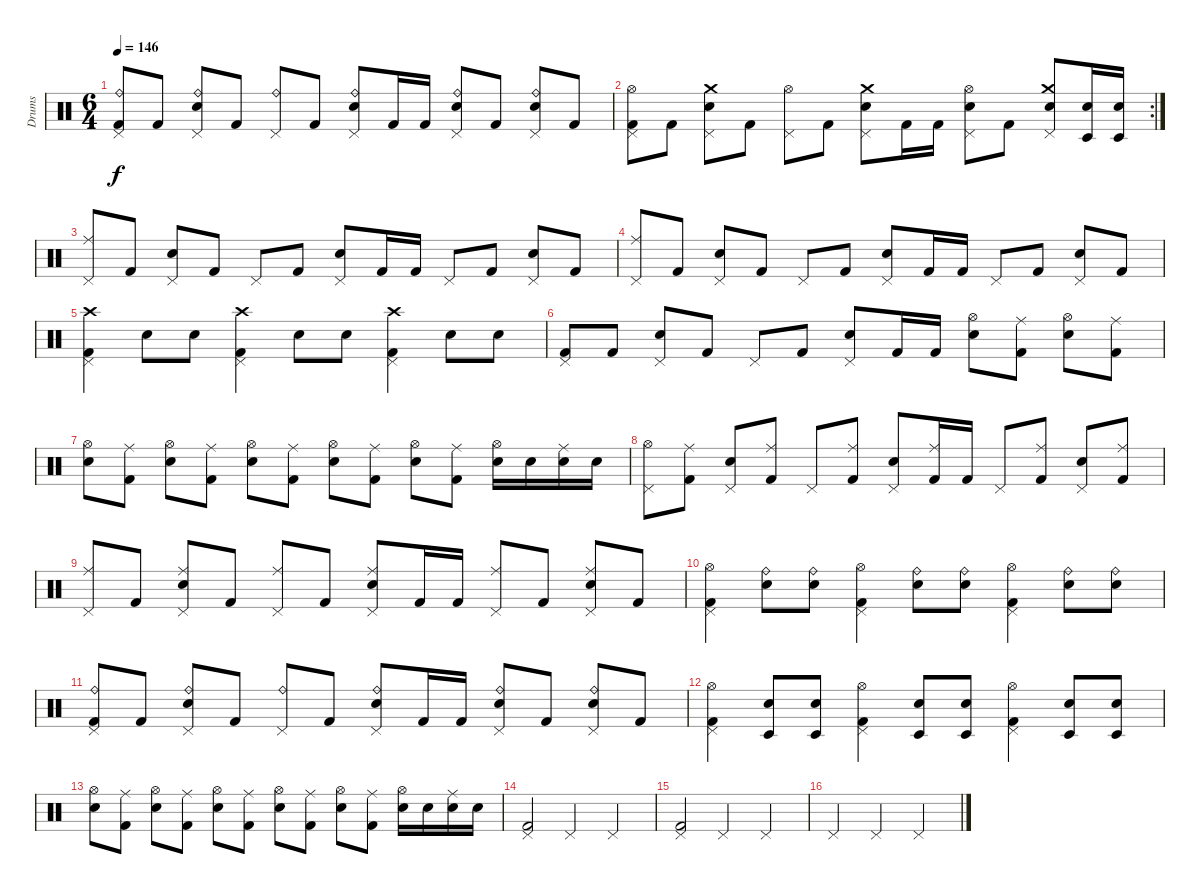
\track ("Drums" "Drums") {instrument percussion}
\staff {score}
\articulation defaults
\ts (6 4)
\tempo 146
\clef neutral
\ks c
("Pedal Hi-Hat (hit)" "Ride (bell)" "Kick (hit) 2").8{dy f} "Kick (hit) 2".8 ("Pedal Hi-Hat (hit)" "Electric Snare (hit)" "Ride (bell)").8 "Kick (hit) 2".8 ("Pedal Hi-Hat (hit)" "Ride (bell)").8 "Kick (hit) 2".8 ("Pedal Hi-Hat (hit)" "Electric Snare (hit)" "Ride (bell)").8 "Kick (hit) 2".16 "Kick (hit) 2".16 ("Pedal Hi-Hat (hit)" "Electric Snare (hit)" "Ride (bell)").8 "Kick (hit) 2".8 ("Pedal Hi-Hat (hit)" "Electric Snare (hit)" "Ride (bell)").8 "Kick (hit) 2".8 |
\rc 2
("Pedal Hi-Hat (hit)" "Hi-Hat (open)" "Kick (hit) 2").8 "Kick (hit) 2".8 ("Pedal Hi-Hat (hit)" "Electric Snare (hit)" "Crash medium (hit)").8 "Kick (hit) 2".8 ("Pedal Hi-Hat (hit)" "Hi-Hat (open)").8 "Kick (hit) 2".8 ("Pedal Hi-Hat (hit)" "Electric Snare (hit)" "Crash medium (hit)").8 "Kick (hit) 2".16 "Kick (hit) 2".16 ("Pedal Hi-Hat (hit)" "Electric Snare (hit)" "Hi-Hat (open)").8 "Kick (hit) 2".8 ("Pedal Hi-Hat (hit)" "Electric Snare (hit)" "Crash medium (hit)").8 ("Electric Snare (hit)" "Timbale low (hit)").16 ("Electric Snare (hit)" "Timbale low (hit)").16 |
("Pedal Hi-Hat (hit)" "Ride (middle)").8 "Kick (hit) 2".8 ("Pedal Hi-Hat (hit)" "Electric Snare (hit)").8 "Kick (hit) 2".8 "Pedal Hi-Hat (hit)".8 "Kick (hit) 2".8 ("Pedal Hi-Hat (hit)" "Electric Snare (hit)").8 "Kick (hit) 2".16 "Kick (hit) 2".16 "Pedal Hi-Hat (hit)".8 "Kick (hit) 2".8 ("Pedal Hi-Hat (hit)" "Electric Snare (hit)").8 "Kick (hit) 2".8 |
("Pedal Hi-Hat (hit)" "Ride (middle)").8 "Kick (hit) 2".8 ("Pedal Hi-Hat (hit)" "Electric Snare (hit)").8 "Kick (hit) 2".8 "Pedal Hi-Hat (hit)".8 "Kick (hit) 2".8 ("Pedal Hi-Hat (hit)" "Electric Snare (hit)").8 "Kick (hit) 2".16 "Kick (hit) 2".16 "Pedal Hi-Hat (hit)".8 "Kick (hit) 2".8 ("Pedal Hi-Hat (hit)" "Electric Snare (hit)").8 "Kick (hit) 2".8 |
("Pedal Hi-Hat (hit)" "Kick (hit) 2" "Crash high (hit)").4 "Electric Snare (hit)".8 "Electric Snare (hit)".8 ("Pedal Hi-Hat (hit)" "Kick (hit) 2" "Crash high (hit)").4 "Electric Snare (hit)".8 "Electric Snare (hit)".8 ("Pedal Hi-Hat (hit)" "Kick (hit) 2" "Crash high (hit)").4 "Electric Snare (hit)".8 "Electric Snare (hit)".8 |
("Pedal Hi-Hat (hit)" "Kick (hit) 2").8 "Kick (hit) 2".8 ("Pedal Hi-Hat (hit)" "Electric Snare (hit)").8 "Kick (hit) 2".8 "Pedal Hi-Hat (hit)".8 "Kick (hit) 2".8 ("Pedal Hi-Hat (hit)" "Electric Snare (hit)").8 "Kick (hit) 2".16 "Kick (hit) 2".16 ("Hi-Hat (open)" "Electric Snare (hit)").8 ("Ride (middle)" "Kick (hit) 2").8 ("Hi-Hat (open)" "Electric Snare (hit)").8 ("Ride (middle)" "Kick (hit) 2").8 |
("Hi-Hat (open)" "Electric Snare (hit)").8 ("Ride (middle)" "Kick (hit) 2").8 ("Hi-Hat (open)" "Electric Snare (hit)").8 ("Ride (middle)" "Kick (hit) 2").8 ("Hi-Hat (open)" "Electric Snare (hit)").8 ("Ride (middle)" "Kick (hit) 2").8 ("Hi-Hat (open)" "Electric Snare (hit)").8 ("Ride (middle)" "Kick (hit) 2").8 ("Hi-Hat (open)" "Electric Snare (hit)").8 ("Ride (middle)" "Kick (hit) 2").8 ("Hi-Hat (open)" "Electric Snare (hit)").16 "Electric Snare (hit)".16 ("Ride (middle)" "Electric Snare (hit)").16 "Electric Snare (hit)".16 |
("Pedal Hi-Hat (hit)" "Hi-Hat (open)").8 ("Ride (middle)" "Kick (hit) 2").8 ("Pedal Hi-Hat (hit)" "Electric Snare (hit)").8 ("Ride (middle)" "Kick (hit) 2").8 "Pedal Hi-Hat (hit)".8 ("Ride (middle)" "Kick (hit) 2").8 ("Pedal Hi-Hat (hit)" "Electric Snare (hit)").8 ("Ride (middle)" "Kick (hit) 2").16 "Kick (hit) 2".16 "Pedal Hi-Hat (hit)".8 ("Ride (middle)" "Kick (hit) 2").8 ("Pedal Hi-Hat (hit)" "Electric Snare (hit)").8 ("Ride (middle)" "Kick (hit) 2").8 |
("Pedal Hi-Hat (hit)" "Ride (middle)").8 "Kick (hit) 2".8 ("Pedal Hi-Hat (hit)" "Electric Snare (hit)" "Ride (middle)").8 "Kick (hit) 2".8 ("Pedal Hi-Hat (hit)" "Ride (middle)").8 "Kick (hit) 2".8 ("Pedal Hi-Hat (hit)" "Electric Snare (hit)" "Ride (middle)").8 "Kick (hit) 2".16 "Kick (hit) 2".16 ("Pedal Hi-Hat (hit)" "Ride (middle)").8 "Kick (hit) 2".8 ("Pedal Hi-Hat (hit)" "Electric Snare (hit)" "Ride (middle)").8 "Kick (hit) 2".8 |
("Pedal Hi-Hat (hit)" "Kick (hit) 2" "Hi-Hat (open)").4 ("Ride (bell)" "Electric Snare (hit)").8 ("Ride (bell)" "Electric Snare (hit)").8 ("Pedal Hi-Hat (hit)" "Kick (hit) 2" "Hi-Hat (open)").4 ("Ride (bell)" "Electric Snare (hit)").8 ("Ride (bell)" "Electric Snare (hit)").8 ("Pedal Hi-Hat (hit)" "Kick (hit) 2" "Hi-Hat (open)").4 ("Ride (bell)" "Electric Snare (hit)").8 ("Ride (bell)" "Electric Snare (hit)").8 |
("Pedal Hi-Hat (hit)" "Ride (bell)" "Kick (hit) 2").8 "Kick (hit) 2".8 ("Pedal Hi-Hat (hit)" "Electric Snare (hit)" "Ride (bell)").8 "Kick (hit) 2".8 ("Pedal Hi-Hat (hit)" "Ride (bell)").8 "Kick (hit) 2".8 ("Pedal Hi-Hat (hit)" "Electric Snare (hit)" "Ride (bell)").8 "Kick (hit) 2".16 "Kick (hit) 2".16 ("Pedal Hi-Hat (hit)" "Electric Snare (hit)" "Ride (bell)").8 "Kick (hit) 2".8 ("Pedal Hi-Hat (hit)" "Electric Snare (hit)" "Ride (bell)").8 "Kick (hit) 2".8 |
("Pedal Hi-Hat (hit)" "Kick (hit) 2" "Hi-Hat (open)").4 ("Timbale low (hit)" "Electric Snare (hit)").8 ("Timbale low (hit)" "Electric Snare (hit)").8 ("Pedal Hi-Hat (hit)" "Kick (hit) 2" "Hi-Hat (open)").4 ("Timbale low (hit)" "Electric Snare (hit)").8 ("Timbale low (hit)" "Electric Snare (hit)").8 ("Pedal Hi-Hat (hit)" "Kick (hit) 2" "Hi-Hat (open)").4 ("Timbale low (hit)" "Electric Snare (hit)").8 ("Timbale low (hit)" "Electric Snare (hit)").8 |
("Hi-Hat (open)" "Electric Snare (hit)").8 ("Ride (middle)" "Kick (hit) 2").8 ("Hi-Hat (open)" "Electric Snare (hit)").8 ("Ride (middle)" "Kick (hit) 2").8 ("Hi-Hat (open)" "Electric Snare (hit)").8 ("Ride (middle)" "Kick (hit) 2").8 ("Hi-Hat (open)" "Electric Snare (hit)").8 ("Ride (middle)" "Kick (hit) 2").8 ("Hi-Hat (open)" "Electric Snare (hit)").8 ("Ride (middle)" "Kick (hit) 2").8 ("Hi-Hat (open)" "Electric Snare (hit)").16 "Electric Snare (hit)".16 ("Ride (middle)" "Electric Snare (hit)").16 "Electric Snare (hit)".16 |
("Pedal Hi-Hat (hit)" "Kick (hit) 2").2 "Pedal Hi-Hat (hit)".2 "Pedal Hi-Hat (hit)".2 |
("Pedal Hi-Hat (hit)" "Kick (hit) 2").2 "Pedal Hi-Hat (hit)".2 "Pedal Hi-Hat (hit)".2 |
"Pedal Hi-Hat (hit)".2 "Pedal Hi-Hat (hit)".2 "Pedal Hi-Hat (hit)".2
